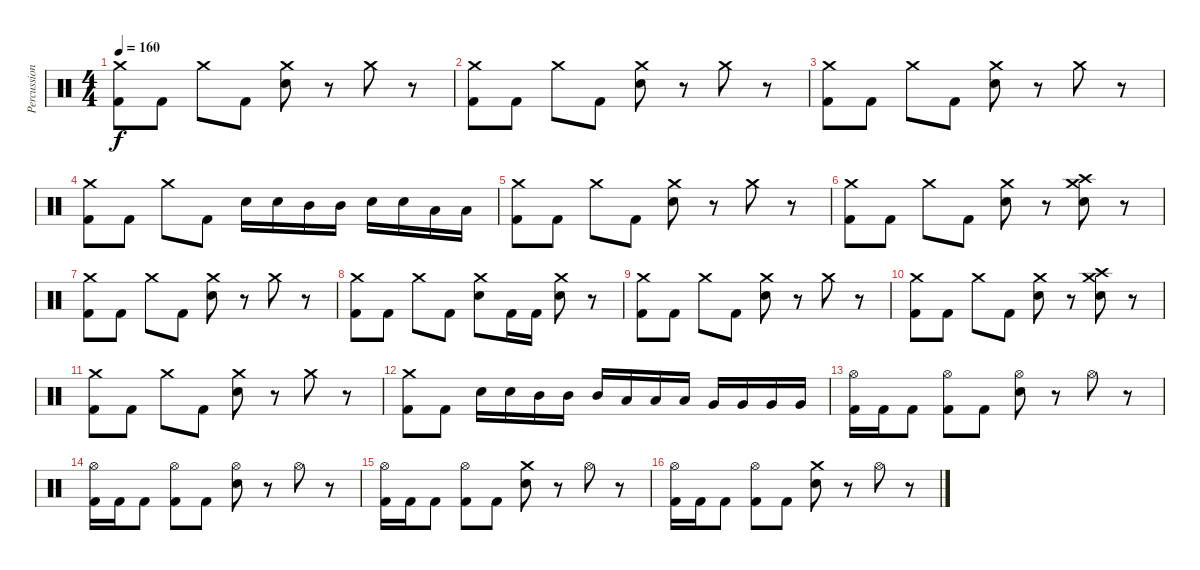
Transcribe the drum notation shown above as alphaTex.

\track ("Percussion" "Percussion") {instrument percussion}
\staff {score}
\articulation defaults
\ts (4 4)
\tempo 160
\clef neutral
\ks c
("Kick (hit) 2" "Crash medium (hit)").8{dy f} "Kick (hit) 2".8 "Crash medium (hit)".8 "Kick (hit) 2".8 ("Electric Snare (hit)" "Crash medium (hit)").8 r.8 "Crash medium (hit)".8 r.8 |
("Kick (hit) 2" "Crash medium (hit)").8 "Kick (hit) 2".8 "Crash medium (hit)".8 "Kick (hit) 2".8 ("Electric Snare (hit)" "Crash medium (hit)").8 r.8 "Crash medium (hit)".8 r.8 |
("Kick (hit) 2" "Crash medium (hit)").8 "Kick (hit) 2".8 "Crash medium (hit)".8 "Kick (hit) 2".8 ("Electric Snare (hit)" "Crash medium (hit)").8 r.8 "Crash medium (hit)".8 r.8 |
("Kick (hit) 2" "Crash medium (hit)").8 "Kick (hit) 2".8 "Crash medium (hit)".8 "Kick (hit) 2".8 "Electric Snare (hit)".16 "Electric Snare (hit)".16 "Mid Tom (hit)".16 "Mid Tom (hit)".16 "Electric Snare (hit)".16 "Electric Snare (hit)".16 "Low Tom (hit)".16 "Low Tom (hit)".16 |
("Kick (hit) 2" "Crash medium (hit)").8 "Kick (hit) 2".8 "Crash medium (hit)".8 "Kick (hit) 2".8 ("Electric Snare (hit)" "Crash medium (hit)").8 r.8 "Crash medium (hit)".8 r.8 |
("Kick (hit) 2" "Crash medium (hit)").8 "Kick (hit) 2".8 "Crash medium (hit)".8 "Kick (hit) 2".8 ("Electric Snare (hit)" "Crash medium (hit)").8 r.8 ("Electric Snare (hit)" "Crash medium (hit)" "Crash high (hit)").8 r.8 |
("Kick (hit) 2" "Crash medium (hit)").8 "Kick (hit) 2".8 "Crash medium (hit)".8 "Kick (hit) 2".8 ("Electric Snare (hit)" "Crash medium (hit)").8 r.8 "Crash medium (hit)".8 r.8 |
("Kick (hit) 2" "Crash medium (hit)").8 "Kick (hit) 2".8 "Crash medium (hit)".8 "Kick (hit) 2".8 ("Electric Snare (hit)" "Crash medium (hit)").8 "Kick (hit) 2".16 "Kick (hit) 2".16 ("Electric Snare (hit)" "Crash medium (hit)").8 r.8 |
("Kick (hit) 2" "Crash medium (hit)").8 "Kick (hit) 2".8 "Crash medium (hit)".8 "Kick (hit) 2".8 ("Electric Snare (hit)" "Crash medium (hit)").8 r.8 "Crash medium (hit)".8 r.8 |
("Kick (hit) 2" "Crash medium (hit)").8 "Kick (hit) 2".8 "Crash medium (hit)".8 "Kick (hit) 2".8 ("Electric Snare (hit)" "Crash medium (hit)").8 r.8 ("Electric Snare (hit)" "Crash medium (hit)" "Crash high (hit)").8 r.8 |
("Kick (hit) 2" "Crash medium (hit)").8 "Kick (hit) 2".8 "Crash medium (hit)".8 "Kick (hit) 2".8 ("Electric Snare (hit)" "Crash medium (hit)").8 r.8 "Crash medium (hit)".8 r.8 |
("Kick (hit) 2" "Crash medium (hit)").8 "Kick (hit) 2".8 "Electric Snare (hit)".16 "Electric Snare (hit)".16 "Mid Tom (hit)".16 "Mid Tom (hit)".16 "Mid Tom (hit)".16 "Low Tom (hit)".16 "Low Tom (hit)".16 "Low Tom (hit)".16 "Very Low Tom (hit)".16 "Very Low Tom (hit)".16 "Very Low Tom (hit)".16 "Very Low Tom (hit)".16 |
("Kick (hit) 2" "Hi-Hat (open)").16 "Kick (hit) 2".16 "Kick (hit) 2".8 ("Kick (hit) 2" "Hi-Hat (open)").8 "Kick (hit) 2".8 ("Electric Snare (hit)" "Hi-Hat (open)").8 r.8 "Hi-Hat (open)".8 r.8 |
("Kick (hit) 2" "Hi-Hat (open)").16 "Kick (hit) 2".16 "Kick (hit) 2".8 ("Kick (hit) 2" "Hi-Hat (open)").8 "Kick (hit) 2".8 ("Electric Snare (hit)" "Hi-Hat (open)").8 r.8 "Hi-Hat (open)".8 r.8 |
("Kick (hit) 2" "Hi-Hat (open)").16 "Kick (hit) 2".16 "Kick (hit) 2".8 ("Kick (hit) 2" "Hi-Hat (open)").8 "Kick (hit) 2".8 ("Electric Snare (hit)" "Crash medium (hit)").8 r.8 "Hi-Hat (open)".8 r.8 |
("Kick (hit) 2" "Hi-Hat (open)").16 "Kick (hit) 2".16 "Kick (hit) 2".8 ("Kick (hit) 2" "Hi-Hat (open)").8 "Kick (hit) 2".8 ("Electric Snare (hit)" "Crash medium (hit)").8 r.8 "Hi-Hat (open)".8 r.8
